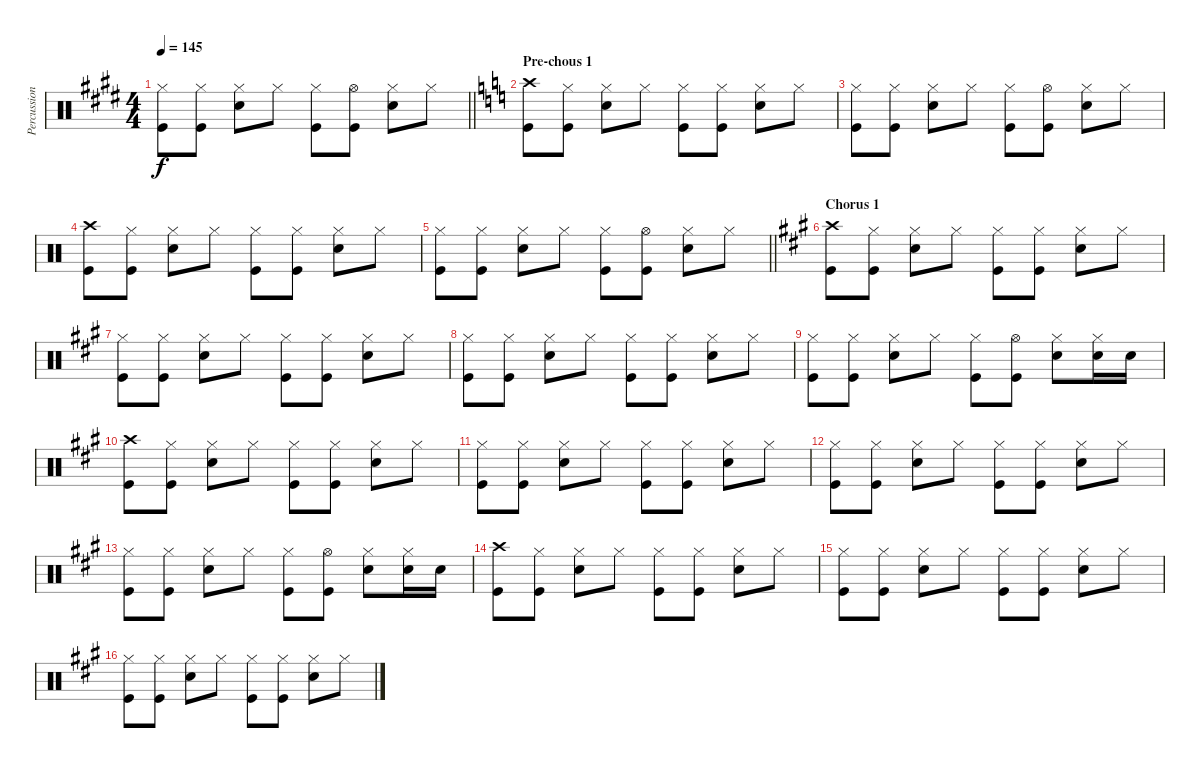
\track ("Percussion" "Percussion") {instrument percussion}
\staff {score}
\articulation defaults
\ts (4 4)
\tempo 145
\clef neutral
\barLineRight lightlight
\ks e
("Hi-Hat (closed)" "Kick (hit)").8{dy f} ("Hi-Hat (closed)" "Kick (hit)").8 ("Hi-Hat (closed)" "Snare (hit) 2").8 "Hi-Hat (closed)".8 ("Hi-Hat (closed)" "Kick (hit)").8 ("Hi-Hat (open)" "Kick (hit)").8 ("Hi-Hat (closed)" "Snare (hit) 2").8 "Hi-Hat (closed)".8 |
\section ("" "Pre-chous 1")
\ks c
("Crash high (hit)" "Kick (hit)").8 ("Hi-Hat (closed)" "Kick (hit)").8 ("Hi-Hat (closed)" "Snare (hit) 2").8 "Hi-Hat (closed)".8 ("Hi-Hat (closed)" "Kick (hit)").8 ("Hi-Hat (closed)" "Kick (hit)").8 ("Hi-Hat (closed)" "Snare (hit) 2").8 "Hi-Hat (closed)".8 |
("Hi-Hat (closed)" "Kick (hit)").8 ("Hi-Hat (closed)" "Kick (hit)").8 ("Hi-Hat (closed)" "Snare (hit) 2").8 "Hi-Hat (closed)".8 ("Hi-Hat (closed)" "Kick (hit)").8 ("Hi-Hat (open)" "Kick (hit)").8 ("Hi-Hat (closed)" "Snare (hit) 2").8 "Hi-Hat (closed)".8 |
("Crash high (hit)" "Kick (hit)").8 ("Hi-Hat (closed)" "Kick (hit)").8 ("Hi-Hat (closed)" "Snare (hit) 2").8 "Hi-Hat (closed)".8 ("Hi-Hat (closed)" "Kick (hit)").8 ("Hi-Hat (closed)" "Kick (hit)").8 ("Hi-Hat (closed)" "Snare (hit) 2").8 "Hi-Hat (closed)".8 |
\barLineRight lightlight
("Hi-Hat (closed)" "Kick (hit)").8 ("Hi-Hat (closed)" "Kick (hit)").8 ("Hi-Hat (closed)" "Snare (hit) 2").8 "Hi-Hat (closed)".8 ("Hi-Hat (closed)" "Kick (hit)").8 ("Hi-Hat (open)" "Kick (hit)").8 ("Hi-Hat (closed)" "Snare (hit) 2").8 "Hi-Hat (closed)".8 |
\section ("" "Chorus 1")
\ks a
("Crash high (hit)" "Kick (hit)").8 ("Hi-Hat (closed)" "Kick (hit)").8 ("Hi-Hat (closed)" "Snare (hit) 2").8 "Hi-Hat (closed)".8 ("Hi-Hat (closed)" "Kick (hit)").8 ("Hi-Hat (closed)" "Kick (hit)").8 ("Hi-Hat (closed)" "Snare (hit) 2").8 "Hi-Hat (closed)".8 |
("Hi-Hat (closed)" "Kick (hit)").8 ("Hi-Hat (closed)" "Kick (hit)").8 ("Hi-Hat (closed)" "Snare (hit) 2").8 "Hi-Hat (closed)".8 ("Hi-Hat (closed)" "Kick (hit)").8 ("Hi-Hat (closed)" "Kick (hit)").8 ("Hi-Hat (closed)" "Snare (hit) 2").8 "Hi-Hat (closed)".8 |
("Hi-Hat (closed)" "Kick (hit)").8 ("Hi-Hat (closed)" "Kick (hit)").8 ("Hi-Hat (closed)" "Snare (hit) 2").8 "Hi-Hat (closed)".8 ("Hi-Hat (closed)" "Kick (hit)").8 ("Hi-Hat (closed)" "Kick (hit)").8 ("Hi-Hat (closed)" "Snare (hit) 2").8 "Hi-Hat (closed)".8 |
("Hi-Hat (closed)" "Kick (hit)").8 ("Hi-Hat (closed)" "Kick (hit)").8 ("Hi-Hat (closed)" "Snare (hit) 2").8 "Hi-Hat (closed)".8 ("Hi-Hat (closed)" "Kick (hit)").8 ("Hi-Hat (open)" "Kick (hit)").8 ("Hi-Hat (closed)" "Snare (hit) 2").8 ("Hi-Hat (closed)" "Snare (hit) 2").16 "Snare (hit) 2".16 |
("Crash high (hit)" "Kick (hit)").8 ("Hi-Hat (closed)" "Kick (hit)").8 ("Hi-Hat (closed)" "Snare (hit) 2").8 "Hi-Hat (closed)".8 ("Hi-Hat (closed)" "Kick (hit)").8 ("Hi-Hat (closed)" "Kick (hit)").8 ("Hi-Hat (closed)" "Snare (hit) 2").8 "Hi-Hat (closed)".8 |
("Hi-Hat (closed)" "Kick (hit)").8 ("Hi-Hat (closed)" "Kick (hit)").8 ("Hi-Hat (closed)" "Snare (hit) 2").8 "Hi-Hat (closed)".8 ("Hi-Hat (closed)" "Kick (hit)").8 ("Hi-Hat (closed)" "Kick (hit)").8 ("Hi-Hat (closed)" "Snare (hit) 2").8 "Hi-Hat (closed)".8 |
("Hi-Hat (closed)" "Kick (hit)").8 ("Hi-Hat (closed)" "Kick (hit)").8 ("Hi-Hat (closed)" "Snare (hit) 2").8 "Hi-Hat (closed)".8 ("Hi-Hat (closed)" "Kick (hit)").8 ("Hi-Hat (closed)" "Kick (hit)").8 ("Hi-Hat (closed)" "Snare (hit) 2").8 "Hi-Hat (closed)".8 |
("Hi-Hat (closed)" "Kick (hit)").8 ("Hi-Hat (closed)" "Kick (hit)").8 ("Hi-Hat (closed)" "Snare (hit) 2").8 "Hi-Hat (closed)".8 ("Hi-Hat (closed)" "Kick (hit)").8 ("Hi-Hat (open)" "Kick (hit)").8 ("Hi-Hat (closed)" "Snare (hit) 2").8 ("Hi-Hat (closed)" "Snare (hit) 2").16 "Snare (hit) 2".16 |
("Crash high (hit)" "Kick (hit)").8 ("Hi-Hat (closed)" "Kick (hit)").8 ("Hi-Hat (closed)" "Snare (hit) 2").8 "Hi-Hat (closed)".8 ("Hi-Hat (closed)" "Kick (hit)").8 ("Hi-Hat (closed)" "Kick (hit)").8 ("Hi-Hat (closed)" "Snare (hit) 2").8 "Hi-Hat (closed)".8 |
("Hi-Hat (closed)" "Kick (hit)").8 ("Hi-Hat (closed)" "Kick (hit)").8 ("Hi-Hat (closed)" "Snare (hit) 2").8 "Hi-Hat (closed)".8 ("Hi-Hat (closed)" "Kick (hit)").8 ("Hi-Hat (closed)" "Kick (hit)").8 ("Hi-Hat (closed)" "Snare (hit) 2").8 "Hi-Hat (closed)".8 |
("Hi-Hat (closed)" "Kick (hit)").8 ("Hi-Hat (closed)" "Kick (hit)").8 ("Hi-Hat (closed)" "Snare (hit) 2").8 "Hi-Hat (closed)".8 ("Hi-Hat (closed)" "Kick (hit)").8 ("Hi-Hat (closed)" "Kick (hit)").8 ("Hi-Hat (closed)" "Snare (hit) 2").8 "Hi-Hat (closed)".8
